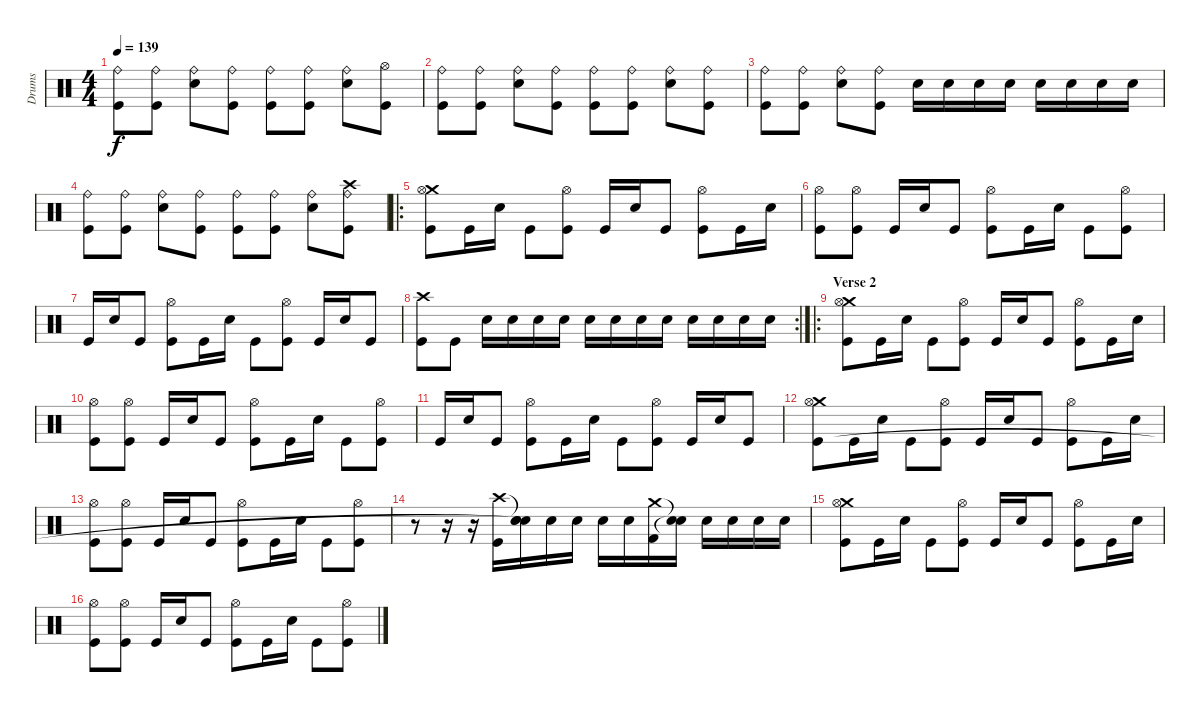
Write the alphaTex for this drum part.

\track ("Drums" "Drums") {instrument percussion}
\staff {score}
\articulation defaults
\ts (4 4)
\tempo 139
\clef neutral
\ks c
("Ride (bell)" "Kick (hit)").8{dy f} ("Ride (bell)" "Kick (hit)").8 ("Ride (bell)" "Electric Snare (hit)").8 ("Ride (bell)" "Kick (hit)").8 ("Ride (bell)" "Kick (hit)").8 ("Ride (bell)" "Kick (hit)").8 ("Ride (bell)" "Electric Snare (hit)").8 ("Hi-Hat (open)" "Kick (hit)").8 |
("Ride (bell)" "Kick (hit)").8 ("Ride (bell)" "Kick (hit)").8 ("Ride (bell)" "Electric Snare (hit)").8 ("Ride (bell)" "Kick (hit)").8 ("Ride (bell)" "Kick (hit)").8 ("Ride (bell)" "Kick (hit)").8 ("Ride (bell)" "Electric Snare (hit)").8 ("Ride (bell)" "Kick (hit)").8 |
("Ride (bell)" "Kick (hit)").8 ("Ride (bell)" "Kick (hit)").8 ("Ride (bell)" "Electric Snare (hit)").8 ("Ride (bell)" "Kick (hit)").8 "Electric Snare (hit)".16 "Electric Snare (hit)".16 "Electric Snare (hit)".16 "Electric Snare (hit)".16 "Electric Snare (hit)".16 "Electric Snare (hit)".16 "Electric Snare (hit)".16 "Electric Snare (hit)".16 |
("Ride (bell)" "Kick (hit)").8 ("Ride (bell)" "Kick (hit)").8 ("Ride (bell)" "Electric Snare (hit)").8 ("Ride (bell)" "Kick (hit)").8 ("Ride (bell)" "Kick (hit)").8 ("Ride (bell)" "Kick (hit)").8 ("Ride (bell)" "Electric Snare (hit)").8 ("Crash high (hit)" "Ride (bell)" "Kick (hit)").8 |
\ro
("Crash medium (hit)" "Hi-Hat (open)" "Kick (hit)").8 "Kick (hit)".16 "Electric Snare (hit)".16 "Kick (hit)".8 ("Hi-Hat (open)" "Kick (hit)").8 "Kick (hit)".16 "Electric Snare (hit)".16 "Kick (hit)".8 ("Hi-Hat (open)" "Kick (hit)").8 "Kick (hit)".16 "Electric Snare (hit)".16 |
("Hi-Hat (open)" "Kick (hit)").8 ("Hi-Hat (open)" "Kick (hit)").8 "Kick (hit)".16 "Electric Snare (hit)".16 "Kick (hit)".8 ("Hi-Hat (open)" "Kick (hit)").8 "Kick (hit)".16 "Electric Snare (hit)".16 "Kick (hit)".8 ("Hi-Hat (open)" "Kick (hit)").8 |
"Kick (hit)".16 "Electric Snare (hit)".16 "Kick (hit)".8 ("Hi-Hat (open)" "Kick (hit)").8 "Kick (hit)".16 "Electric Snare (hit)".16 "Kick (hit)".8 ("Hi-Hat (open)" "Kick (hit)").8 "Kick (hit)".16 "Electric Snare (hit)".16 "Kick (hit)".8 |
\rc 2
("Crash high (hit)" "Kick (hit)").8 "Kick (hit)".8 "Electric Snare (hit)".16 "Electric Snare (hit)".16 "Electric Snare (hit)".16 "Electric Snare (hit)".16 "Electric Snare (hit)".16 "Electric Snare (hit)".16 "Electric Snare (hit)".16 "Electric Snare (hit)".16 "Electric Snare (hit)".16 "Electric Snare (hit)".16 "Electric Snare (hit)".16 "Electric Snare (hit)".16 |
\ro
\section ("" "Verse 2")
("Crash medium (hit)" "Hi-Hat (open)" "Kick (hit)").8 "Kick (hit)".16 "Electric Snare (hit)".16 "Kick (hit)".8 ("Hi-Hat (open)" "Kick (hit)").8 "Kick (hit)".16 "Electric Snare (hit)".16 "Kick (hit)".8 ("Hi-Hat (open)" "Kick (hit)").8 "Kick (hit)".16 "Electric Snare (hit)".16 |
("Hi-Hat (open)" "Kick (hit)").8 ("Hi-Hat (open)" "Kick (hit)").8 "Kick (hit)".16 "Electric Snare (hit)".16 "Kick (hit)".8 ("Hi-Hat (open)" "Kick (hit)").8 "Kick (hit)".16 "Electric Snare (hit)".16 "Kick (hit)".8 ("Hi-Hat (open)" "Kick (hit)").8 |
"Kick (hit)".16 "Electric Snare (hit)".16 "Kick (hit)".8 ("Hi-Hat (open)" "Kick (hit)").8 "Kick (hit)".16 "Electric Snare (hit)".16 "Kick (hit)".8 ("Hi-Hat (open)" "Kick (hit)").8 "Kick (hit)".16 "Electric Snare (hit)".16 "Kick (hit)".8 |
("Crash medium (hit)" "Hi-Hat (open)" "Kick (hit)").8 "Kick (hit)".16 "Electric Snare (hit)".16 "Kick (hit)".8 ("Hi-Hat (open)" "Kick (hit)").8 "Kick (hit)".16 "Electric Snare (hit)".16 "Kick (hit)".8 ("Hi-Hat (open)" "Kick (hit)").8 "Kick (hit)".16 "Electric Snare (hit)".16 |
("Hi-Hat (open)" "Kick (hit)").8 ("Hi-Hat (open)" "Kick (hit)").8 "Kick (hit)".16 "Electric Snare (hit)".16 "Kick (hit)".8 ("Hi-Hat (open)" "Kick (hit)").8 "Kick (hit)".16 "Electric Snare (hit)".16 "Kick (hit)".8 ("Hi-Hat (open)" "Kick (hit)").8 |
r.8 r.16 r.16 ("Crash high (hit)" "Kick (hit)").16 ("Snare (hit)"{t} "Electric Snare (hit)" "Snare (hit)"{t}).16 "Electric Snare (hit)".16 "Electric Snare (hit)".16 "Electric Snare (hit)".16 "Electric Snare (hit)".16 ("Crash medium (hit)" "Kick (hit) 2").16 ("Snare (hit)"{t} "Snare (hit)"{t}).16 "Electric Snare (hit)".16 "Electric Snare (hit)".16 "Electric Snare (hit)".16 "Electric Snare (hit)".16 |
("Crash medium (hit)" "Hi-Hat (open)" "Kick (hit)").8 "Kick (hit)".16 "Electric Snare (hit)".16 "Kick (hit)".8 ("Hi-Hat (open)" "Kick (hit)").8 "Kick (hit)".16 "Electric Snare (hit)".16 "Kick (hit)".8 ("Hi-Hat (open)" "Kick (hit)").8 "Kick (hit)".16 "Electric Snare (hit)".16 |
("Hi-Hat (open)" "Kick (hit)").8 ("Hi-Hat (open)" "Kick (hit)").8 "Kick (hit)".16 "Electric Snare (hit)".16 "Kick (hit)".8 ("Hi-Hat (open)" "Kick (hit)").8 "Kick (hit)".16 "Electric Snare (hit)".16 "Kick (hit)".8 ("Hi-Hat (open)" "Kick (hit)").8
